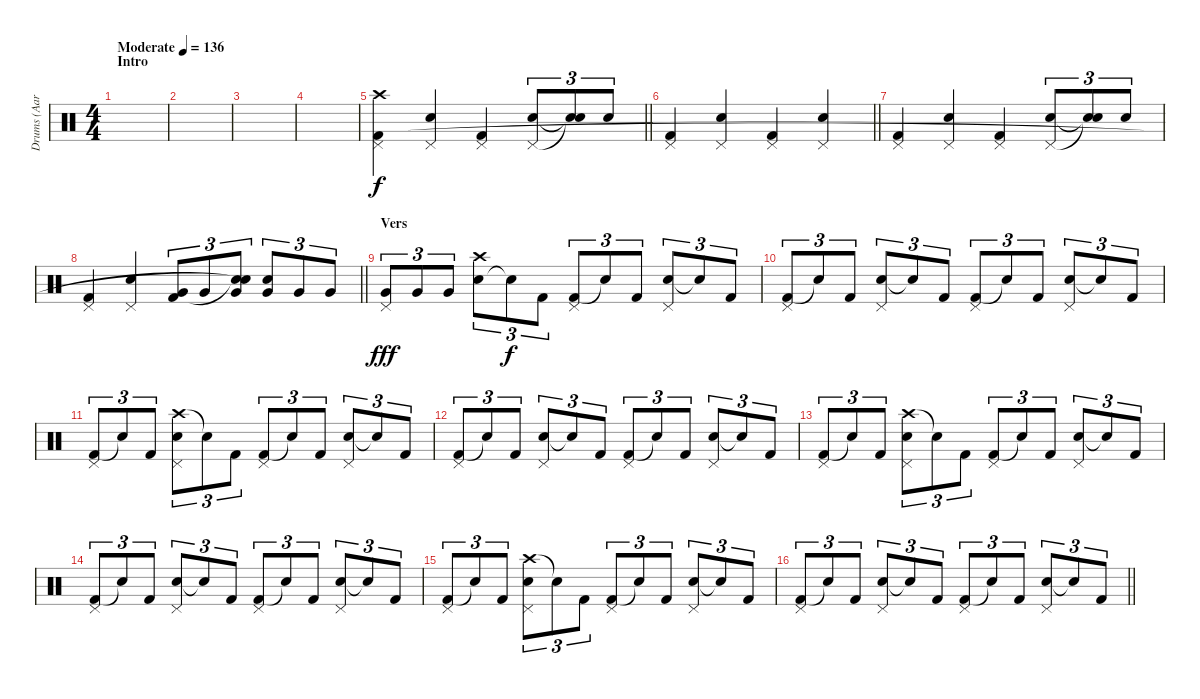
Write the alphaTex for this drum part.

\track ("Drums (Aaron Solowoniuk)" "Drums (Aar") {instrument percussion}
\staff {score}
\articulation defaults
\ts (4 4)
\section ("" "Intro")
\tempo (136 "Moderate")
\clef neutral
\ks c
|
|
|
|
\barLineRight lightlight
("Crash high (hit)" "Pedal Hi-Hat (hit)" "Kick (hit) 2").4 ("Pedal Hi-Hat (hit)" "Electric Snare (hit)").4 ("Pedal Hi-Hat (hit)" "Kick (hit) 2").4 ("Pedal Hi-Hat (hit)" "Electric Snare (hit)").8{tu (3 2)} ("Snare (hit)"{t} "Snare (hit)"{t}).8{tu (3 2)} "Electric Snare (hit)".8{tu (3 2)} |
\section ("" "")
\barLineRight lightlight
("Pedal Hi-Hat (hit)" "Kick (hit) 2").4 ("Pedal Hi-Hat (hit)" "Electric Snare (hit)").4 ("Pedal Hi-Hat (hit)" "Kick (hit) 2").4 ("Pedal Hi-Hat (hit)" "Electric Snare (hit)").4 |
\section ("" "")
("Pedal Hi-Hat (hit)" "Kick (hit) 2").4 ("Pedal Hi-Hat (hit)" "Electric Snare (hit)").4 ("Pedal Hi-Hat (hit)" "Kick (hit) 2").4 ("Pedal Hi-Hat (hit)" "Electric Snare (hit)").8{tu (3 2)} ("Snare (hit)"{t} "Snare (hit)"{t}).8{tu (3 2)} "Electric Snare (hit)".8{tu (3 2)} |
\barLineRight lightlight
("Pedal Hi-Hat (hit)" "Kick (hit) 2").4 ("Pedal Hi-Hat (hit)" "Electric Snare (hit)").4 ("Very Low Tom (hit)" "Kick (hit) 2").8{tu (3 2)} "Very Low Tom (hit)".8{tu (3 2)} ("Very Low Tom (hit)" "Snare (hit)"{t} "Snare (hit)"{t}).8{tu (3 2)} ("Very Low Tom (hit)" "Electric Snare (hit)").8{tu (3 2)} "Very Low Tom (hit)".8{tu (3 2)} "Very Low Tom (hit)".8{tu (3 2)} |
\section ("" "Vers")
("Very Low Tom (hit)" "Pedal Hi-Hat (hit)").8{tu (3 2) dy fff} "Very Low Tom (hit)".8{tu (3 2)} "Very Low Tom (hit)".8{tu (3 2)} ("Electric Snare (hit)" "Crash high (hit)").8{tu (3 2)} "Snare (hit)"{t}.8{tu (3 2) dy f} "Kick (hit) 2".8{tu (3 2)} ("Kick (hit) 2" "Pedal Hi-Hat (hit)").8{tu (3 2)} "Snare (hit)"{t}.8{tu (3 2)} "Kick (hit) 2".8{tu (3 2)} ("Electric Snare (hit)" "Pedal Hi-Hat (hit)").8{tu (3 2)} "Snare (hit)"{t}.8{tu (3 2)} "Kick (hit) 2".8{tu (3 2)} |
("Kick (hit) 2" "Pedal Hi-Hat (hit)").8{tu (3 2)} "Snare (hit)"{t}.8{tu (3 2)} "Kick (hit) 2".8{tu (3 2)} ("Electric Snare (hit)" "Pedal Hi-Hat (hit)").8{tu (3 2)} "Electric Snare (hit)"{t}.8{tu (3 2)} "Kick (hit) 2".8{tu (3 2)} ("Kick (hit) 2" "Pedal Hi-Hat (hit)").8{tu (3 2)} "Snare (hit)"{t}.8{tu (3 2)} "Kick (hit) 2".8{tu (3 2)} ("Electric Snare (hit)" "Pedal Hi-Hat (hit)").8{tu (3 2)} "Snare (hit)"{t}.8{tu (3 2)} "Kick (hit) 2".8{tu (3 2)} |
("Kick (hit) 2" "Pedal Hi-Hat (hit)").8{tu (3 2)} "Snare (hit)"{t}.8{tu (3 2)} "Kick (hit) 2".8{tu (3 2)} ("Crash high (hit)" "Electric Snare (hit)" "Pedal Hi-Hat (hit)").8{tu (3 2)} "Electric Snare (hit)"{t}.8{tu (3 2)} "Kick (hit) 2".8{tu (3 2)} ("Kick (hit) 2" "Pedal Hi-Hat (hit)").8{tu (3 2)} "Snare (hit)"{t}.8{tu (3 2)} "Kick (hit) 2".8{tu (3 2)} ("Electric Snare (hit)" "Pedal Hi-Hat (hit)").8{tu (3 2)} "Snare (hit)"{t}.8{tu (3 2)} "Kick (hit) 2".8{tu (3 2)} |
("Kick (hit) 2" "Pedal Hi-Hat (hit)").8{tu (3 2)} "Snare (hit)"{t}.8{tu (3 2)} "Kick (hit) 2".8{tu (3 2)} ("Electric Snare (hit)" "Pedal Hi-Hat (hit)").8{tu (3 2)} "Electric Snare (hit)"{t}.8{tu (3 2)} "Kick (hit) 2".8{tu (3 2)} ("Kick (hit) 2" "Pedal Hi-Hat (hit)").8{tu (3 2)} "Snare (hit)"{t}.8{tu (3 2)} "Kick (hit) 2".8{tu (3 2)} ("Electric Snare (hit)" "Pedal Hi-Hat (hit)").8{tu (3 2)} "Snare (hit)"{t}.8{tu (3 2)} "Kick (hit) 2".8{tu (3 2)} |
("Kick (hit) 2" "Pedal Hi-Hat (hit)").8{tu (3 2)} "Snare (hit)"{t}.8{tu (3 2)} "Kick (hit) 2".8{tu (3 2)} ("Crash high (hit)" "Electric Snare (hit)" "Pedal Hi-Hat (hit)").8{tu (3 2)} "Electric Snare (hit)"{t}.8{tu (3 2)} "Kick (hit) 2".8{tu (3 2)} ("Kick (hit) 2" "Pedal Hi-Hat (hit)").8{tu (3 2)} "Snare (hit)"{t}.8{tu (3 2)} "Kick (hit) 2".8{tu (3 2)} ("Electric Snare (hit)" "Pedal Hi-Hat (hit)").8{tu (3 2)} "Snare (hit)"{t}.8{tu (3 2)} "Kick (hit) 2".8{tu (3 2)} |
("Kick (hit) 2" "Pedal Hi-Hat (hit)").8{tu (3 2)} "Snare (hit)"{t}.8{tu (3 2)} "Kick (hit) 2".8{tu (3 2)} ("Electric Snare (hit)" "Pedal Hi-Hat (hit)").8{tu (3 2)} "Electric Snare (hit)"{t}.8{tu (3 2)} "Kick (hit) 2".8{tu (3 2)} ("Kick (hit) 2" "Pedal Hi-Hat (hit)").8{tu (3 2)} "Snare (hit)"{t}.8{tu (3 2)} "Kick (hit) 2".8{tu (3 2)} ("Electric Snare (hit)" "Pedal Hi-Hat (hit)").8{tu (3 2)} "Snare (hit)"{t}.8{tu (3 2)} "Kick (hit) 2".8{tu (3 2)} |
("Kick (hit) 2" "Pedal Hi-Hat (hit)").8{tu (3 2)} "Snare (hit)"{t}.8{tu (3 2)} "Kick (hit) 2".8{tu (3 2)} ("Crash high (hit)" "Electric Snare (hit)" "Pedal Hi-Hat (hit)").8{tu (3 2)} "Electric Snare (hit)"{t}.8{tu (3 2)} "Kick (hit) 2".8{tu (3 2)} ("Kick (hit) 2" "Pedal Hi-Hat (hit)").8{tu (3 2)} "Snare (hit)"{t}.8{tu (3 2)} "Kick (hit) 2".8{tu (3 2)} ("Electric Snare (hit)" "Pedal Hi-Hat (hit)").8{tu (3 2)} "Snare (hit)"{t}.8{tu (3 2)} "Kick (hit) 2".8{tu (3 2)} |
\barLineRight lightlight
("Kick (hit) 2" "Pedal Hi-Hat (hit)").8{tu (3 2)} "Snare (hit)"{t}.8{tu (3 2)} "Kick (hit) 2".8{tu (3 2)} ("Electric Snare (hit)" "Pedal Hi-Hat (hit)").8{tu (3 2)} "Electric Snare (hit)"{t}.8{tu (3 2)} "Kick (hit) 2".8{tu (3 2)} ("Kick (hit) 2" "Pedal Hi-Hat (hit)").8{tu (3 2)} "Snare (hit)"{t}.8{tu (3 2)} "Kick (hit) 2".8{tu (3 2)} ("Electric Snare (hit)" "Pedal Hi-Hat (hit)").8{tu (3 2)} "Snare (hit)"{t}.8{tu (3 2)} "Kick (hit) 2".8{tu (3 2)}
